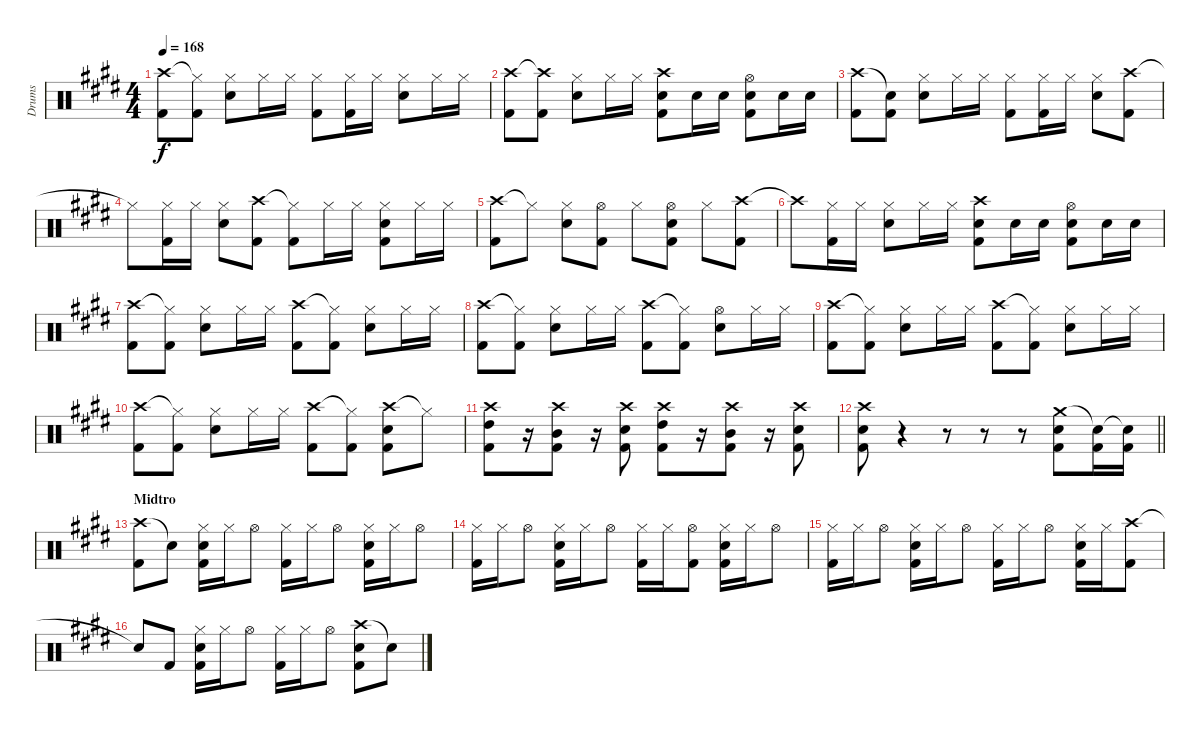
\track ("Drums" "Drums") {instrument percussion}
\staff {score}
\articulation defaults
\ts (4 4)
\tempo 168
\clef neutral
\ks e
("Crash high (hit)" "Kick (hit) 2").8{dy f} ("Hi-Hat (closed)"{t} "Kick (hit) 2").8 ("Hi-Hat (closed)" "Snare (hit) 2").8 "Hi-Hat (closed)".16 "Hi-Hat (closed)".16 ("Hi-Hat (closed)" "Kick (hit) 2").8 ("Hi-Hat (closed)" "Kick (hit) 2").16 "Hi-Hat (closed)".16 ("Hi-Hat (closed)" "Snare (hit) 2").8 "Hi-Hat (closed)".16 "Hi-Hat (closed)".16 |
("Crash high (hit)" "Kick (hit) 2").8 ("Crash high (hit)"{t} "Kick (hit) 2").8 ("Hi-Hat (closed)" "Snare (hit) 2").8 "Hi-Hat (closed)".16 "Hi-Hat (closed)".16 ("Crash high (hit)" "Snare (hit) 2" "Kick (hit) 2").8 "Snare (hit) 2".16 "Snare (hit) 2".16 ("Hi-Hat (open)" "Snare (hit) 2" "Kick (hit) 2").8 "Snare (hit) 2".16 "Snare (hit) 2".16 |
("Crash high (hit)" "Kick (hit) 2").8 ("Snare (hit)"{t} "Kick (hit) 2").8 ("Hi-Hat (closed)" "Snare (hit) 2").8 "Hi-Hat (closed)".16 "Hi-Hat (closed)".16 ("Hi-Hat (closed)" "Kick (hit) 2").8 ("Hi-Hat (closed)" "Kick (hit) 2").16 "Hi-Hat (closed)".16 ("Hi-Hat (closed)" "Snare (hit) 2").8 ("Crash high (hit)" "Kick (hit) 2").8 |
"Hi-Hat (closed)"{t}.8 ("Hi-Hat (closed)" "Kick (hit) 2").16 "Hi-Hat (closed)".16 ("Hi-Hat (closed)" "Snare (hit) 2").8 ("Crash high (hit)" "Kick (hit) 2").8 ("Hi-Hat (closed)"{t} "Kick (hit) 2").8 "Hi-Hat (closed)".16 "Hi-Hat (closed)".16 ("Hi-Hat (closed)" "Snare (hit) 2" "Kick (hit) 2").8 "Hi-Hat (closed)".16 "Hi-Hat (closed)".16 |
("Crash high (hit)" "Kick (hit) 2").8 "Hi-Hat (closed)"{t}.8 ("Hi-Hat (closed)" "Snare (hit) 2").8 ("Hi-Hat (open)" "Kick (hit) 2").8 "Hi-Hat (closed)".8 ("Hi-Hat (open)" "Snare (hit) 2" "Kick (hit) 2").8 "Hi-Hat (closed)".8 ("Crash high (hit)" "Kick (hit) 2").8 |
"Crash high (hit)"{t}.8 ("Hi-Hat (closed)" "Kick (hit) 2").16 "Hi-Hat (closed)".16 ("Hi-Hat (closed)" "Snare (hit) 2").8 "Hi-Hat (closed)".16 "Hi-Hat (closed)".16 ("Crash high (hit)" "Snare (hit) 2" "Kick (hit) 2").8 "Snare (hit) 2".16 "Snare (hit) 2".16 ("Hi-Hat (open)" "Snare (hit) 2" "Kick (hit) 2").8 "Snare (hit) 2".16 "Snare (hit) 2".16 |
("Crash high (hit)" "Kick (hit) 2").8 ("Hi-Hat (closed)"{t} "Kick (hit) 2").8 ("Hi-Hat (closed)" "Snare (hit) 2").8 "Hi-Hat (closed)".16 "Hi-Hat (closed)".16 ("Crash high (hit)" "Kick (hit) 2").8 ("Hi-Hat (closed)"{t} "Kick (hit) 2").8 ("Hi-Hat (closed)" "Snare (hit) 2").8 "Hi-Hat (closed)".16 "Hi-Hat (closed)".16 |
("Crash high (hit)" "Kick (hit) 2").8 ("Hi-Hat (closed)"{t} "Kick (hit) 2").8 ("Hi-Hat (closed)" "Snare (hit) 2").8 "Hi-Hat (closed)".16 "Hi-Hat (closed)".16 ("Crash high (hit)" "Kick (hit) 2").8 ("Hi-Hat (closed)"{t} "Kick (hit) 2").8 ("Hi-Hat (open)" "Snare (hit) 2").8 "Hi-Hat (closed)".16 "Hi-Hat (closed)".16 |
("Crash high (hit)" "Kick (hit) 2").8 ("Hi-Hat (closed)"{t} "Kick (hit) 2").8 ("Hi-Hat (closed)" "Snare (hit) 2").8 "Hi-Hat (closed)".16 "Hi-Hat (closed)".16 ("Crash high (hit)" "Kick (hit) 2").8 ("Hi-Hat (closed)"{t} "Kick (hit) 2").8 ("Hi-Hat (closed)" "Snare (hit) 2").8 "Hi-Hat (closed)".16 "Hi-Hat (closed)".16 |
("Crash high (hit)" "Kick (hit) 2").8 ("Hi-Hat (closed)"{t} "Kick (hit) 2").8 ("Hi-Hat (closed)" "Snare (hit) 2").8 "Hi-Hat (closed)".16 "Hi-Hat (closed)".16 ("Crash high (hit)" "Kick (hit) 2").8 ("Hi-Hat (closed)"{t} "Kick (hit) 2").8 ("Crash high (hit)" "Snare (hit) 2" "Kick (hit) 2").8 "Hi-Hat (closed)"{t}.8 |
("Crash high (hit)" "High Tom (hit)" "Kick (hit) 2").8 r.16 ("Crash high (hit)" "Mid Tom (hit)" "Kick (hit) 2").8 r.16 ("Crash high (hit)" "Snare (hit) 2" "Kick (hit) 2").8 ("Crash high (hit)" "High Tom (hit)" "Kick (hit) 2").8 r.16 ("Crash high (hit)" "Mid Tom (hit)" "Kick (hit) 2").8 r.16 ("Crash high (hit)" "Snare (hit) 2" "Kick (hit) 2").8 |
\barLineRight lightlight
("Crash high (hit)" "Snare (hit) 2" "Kick (hit) 2").8 r.4 r.8 r.8 r.8 ("Crash medium (hit)" "Snare (hit) 2" "Kick (hit) 2").8 ("Snare (hit)"{t} "Kick (hit) 2").16 ("Snare (hit)"{t} "Kick (hit) 2").16 |
\section ("" "Midtro")
("Crash high (hit)" "Kick (hit) 2").8 "Snare (hit)"{t}.8 ("Hi-Hat (closed)" "Snare (hit) 2" "Kick (hit) 2").16 "Hi-Hat (closed)".16 "Hi-Hat (open)".8 ("Hi-Hat (closed)" "Kick (hit) 2").16 "Hi-Hat (closed)".16 "Hi-Hat (open)".8 ("Hi-Hat (closed)" "Snare (hit) 2" "Kick (hit) 2").16 "Hi-Hat (closed)".16 "Hi-Hat (open)".8 |
("Hi-Hat (closed)" "Kick (hit) 2").16 "Hi-Hat (closed)".16 "Hi-Hat (open)".8 ("Hi-Hat (closed)" "Snare (hit) 2" "Kick (hit) 2").16 "Hi-Hat (closed)".16 "Hi-Hat (open)".8 ("Hi-Hat (closed)" "Kick (hit) 2").16 "Hi-Hat (closed)".16 ("Hi-Hat (open)" "Kick (hit) 2").8 ("Hi-Hat (closed)" "Snare (hit) 2" "Kick (hit) 2").16 "Hi-Hat (closed)".16 "Hi-Hat (open)".8 |
("Hi-Hat (closed)" "Kick (hit) 2").16 "Hi-Hat (closed)".16 "Hi-Hat (open)".8 ("Hi-Hat (closed)" "Snare (hit) 2" "Kick (hit) 2").16 "Hi-Hat (closed)".16 "Hi-Hat (open)".8 ("Hi-Hat (closed)" "Kick (hit) 2").16 "Hi-Hat (closed)".16 "Hi-Hat (open)".8 ("Hi-Hat (closed)" "Snare (hit) 2" "Kick (hit) 2").16 "Hi-Hat (closed)".16 ("Crash high (hit)" "Kick (hit) 2").8 |
"Snare (hit)"{t}.8 "Kick (hit) 2".8 ("Hi-Hat (closed)" "Snare (hit) 2" "Kick (hit) 2").16 "Hi-Hat (closed)".16 "Hi-Hat (open)".8 ("Hi-Hat (closed)" "Kick (hit) 2").16 "Hi-Hat (closed)".16 "Hi-Hat (open)".8 ("Crash high (hit)" "Snare (hit) 2" "Kick (hit) 2").8 "Snare (hit)"{t}.8
